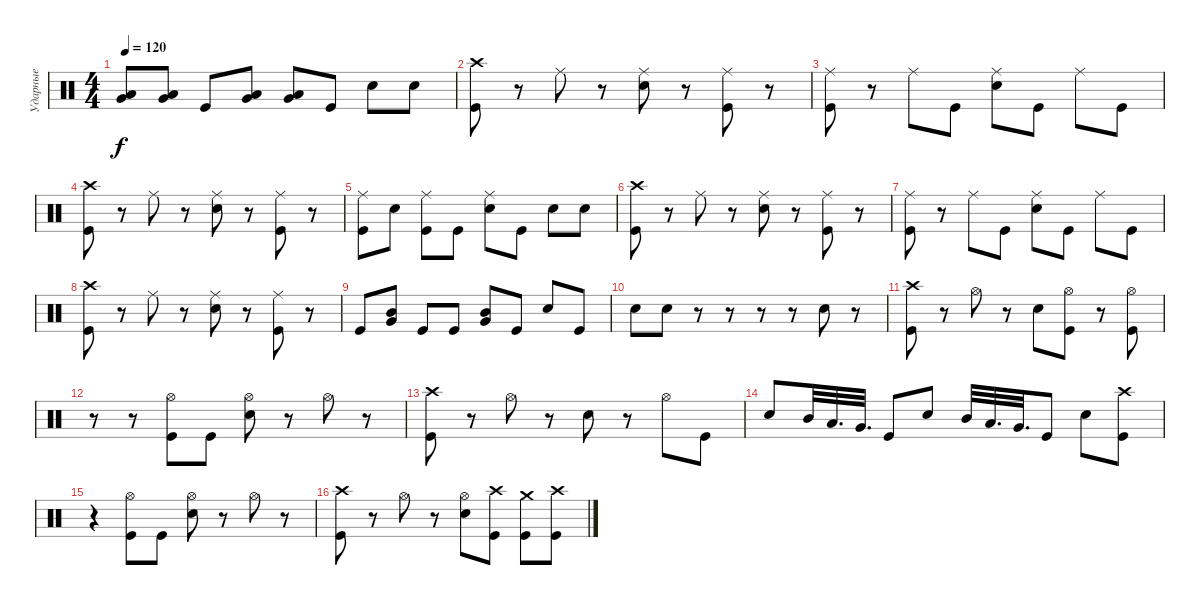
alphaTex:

\track ("Ударные" "Ударные") {instrument percussion}
\staff {score}
\articulation defaults
\ts (4 4)
\tempo 120
\clef neutral
\ks c
("Low Tom (hit)" "Very Low Tom (hit)").8{dy f} ("Low Tom (hit)" "Very Low Tom (hit)").8 "Kick (hit)".8 ("Low Tom (hit)" "Very Low Tom (hit)").8 ("Low Tom (hit)" "Very Low Tom (hit)").8 "Kick (hit)".8 "Snare (hit) 2".8 "Snare (hit) 2".8 |
("Crash high (hit)" "Kick (hit)").8 r.8 "Ride (middle)".8 r.8 ("Ride (middle)" "Snare (hit) 2").8 r.8 ("Ride (middle)" "Kick (hit)").8 r.8 |
("Ride (middle)" "Kick (hit)").8 r.8 "Ride (middle)".8 "Kick (hit)".8 ("Ride (middle)" "Snare (hit) 2").8 "Kick (hit)".8 "Ride (middle)".8 "Kick (hit)".8 |
("Crash high (hit)" "Kick (hit)").8 r.8 "Ride (middle)".8 r.8 ("Ride (middle)" "Snare (hit) 2").8 r.8 ("Ride (middle)" "Kick (hit)").8 r.8 |
("Ride (middle)" "Kick (hit)").8 "Snare (hit) 2".8 ("Ride (middle)" "Kick (hit)").8 "Kick (hit)".8 ("Ride (middle)" "Snare (hit) 2").8 "Kick (hit)".8 "Snare (hit) 2".8 "Snare (hit) 2".8 |
("Crash high (hit)" "Kick (hit)").8 r.8 "Ride (middle)".8 r.8 ("Ride (middle)" "Snare (hit) 2").8 r.8 ("Ride (middle)" "Kick (hit)").8 r.8 |
("Ride (middle)" "Kick (hit)").8 r.8 "Ride (middle)".8 "Kick (hit)".8 ("Ride (middle)" "Snare (hit) 2").8 "Kick (hit)".8 "Ride (middle)".8 "Kick (hit)".8 |
("Crash high (hit)" "Kick (hit)").8 r.8 "Ride (middle)".8 r.8 ("Ride (middle)" "Snare (hit) 2").8 r.8 ("Ride (middle)" "Kick (hit)").8 r.8 |
"Kick (hit)".8 ("Mid Tom (hit)" "Very Low Tom (hit)").8 "Kick (hit)".8 "Kick (hit)".8 ("Mid Tom (hit)" "Very Low Tom (hit)").8 "Kick (hit)".8 "Snare (hit) 2".8 "Kick (hit)".8 |
"Snare (hit) 2".8 "Snare (hit) 2".8 r.8 r.8 r.8 r.8 "Snare (hit) 2".8 r.8 |
("Crash high (hit)" "Kick (hit)").8 r.8 "Hi-Hat (open)".8 r.8 "Snare (hit) 2".8 ("Hi-Hat (open)" "Kick (hit)").8 r.8 ("Hi-Hat (open)" "Kick (hit)").8 |
r.8 r.8 ("Hi-Hat (open)" "Kick (hit)").8 "Kick (hit)".8 ("Hi-Hat (open)" "Snare (hit) 2").8 r.8 "Hi-Hat (open)".8 r.8 |
("Crash high (hit)" "Kick (hit)").8 r.8 "Hi-Hat (open)".8 r.8 "Snare (hit) 2".8 r.8 "Hi-Hat (open)".8 "Kick (hit)".8 |
"Snare (hit) 2".8 "Mid Tom (hit)".32 "Low Tom (hit)".32{d} "Very Low Tom (hit)".32{d} "Kick (hit)".8 "Snare (hit) 2".8 "Mid Tom (hit)".32 "Low Tom (hit)".32{d} "Very Low Tom (hit)".32{d} "Kick (hit)".8 "Snare (hit) 2".8 ("Crash high (hit)" "Kick (hit)").8 |
r.4 ("Hi-Hat (open)" "Kick (hit)").8 "Kick (hit)".8 ("Hi-Hat (open)" "Snare (hit) 2").8 r.8 "Hi-Hat (open)".8 r.8 |
("Crash high (hit)" "Kick (hit)").8 r.8 "Hi-Hat (open)".8 r.8 ("Hi-Hat (open)" "Snare (hit) 2").8 ("Crash high (hit)" "Kick (hit)").8 ("Crash medium (hit)" "Kick (hit)").8 ("Crash high (hit)" "Kick (hit)").8
